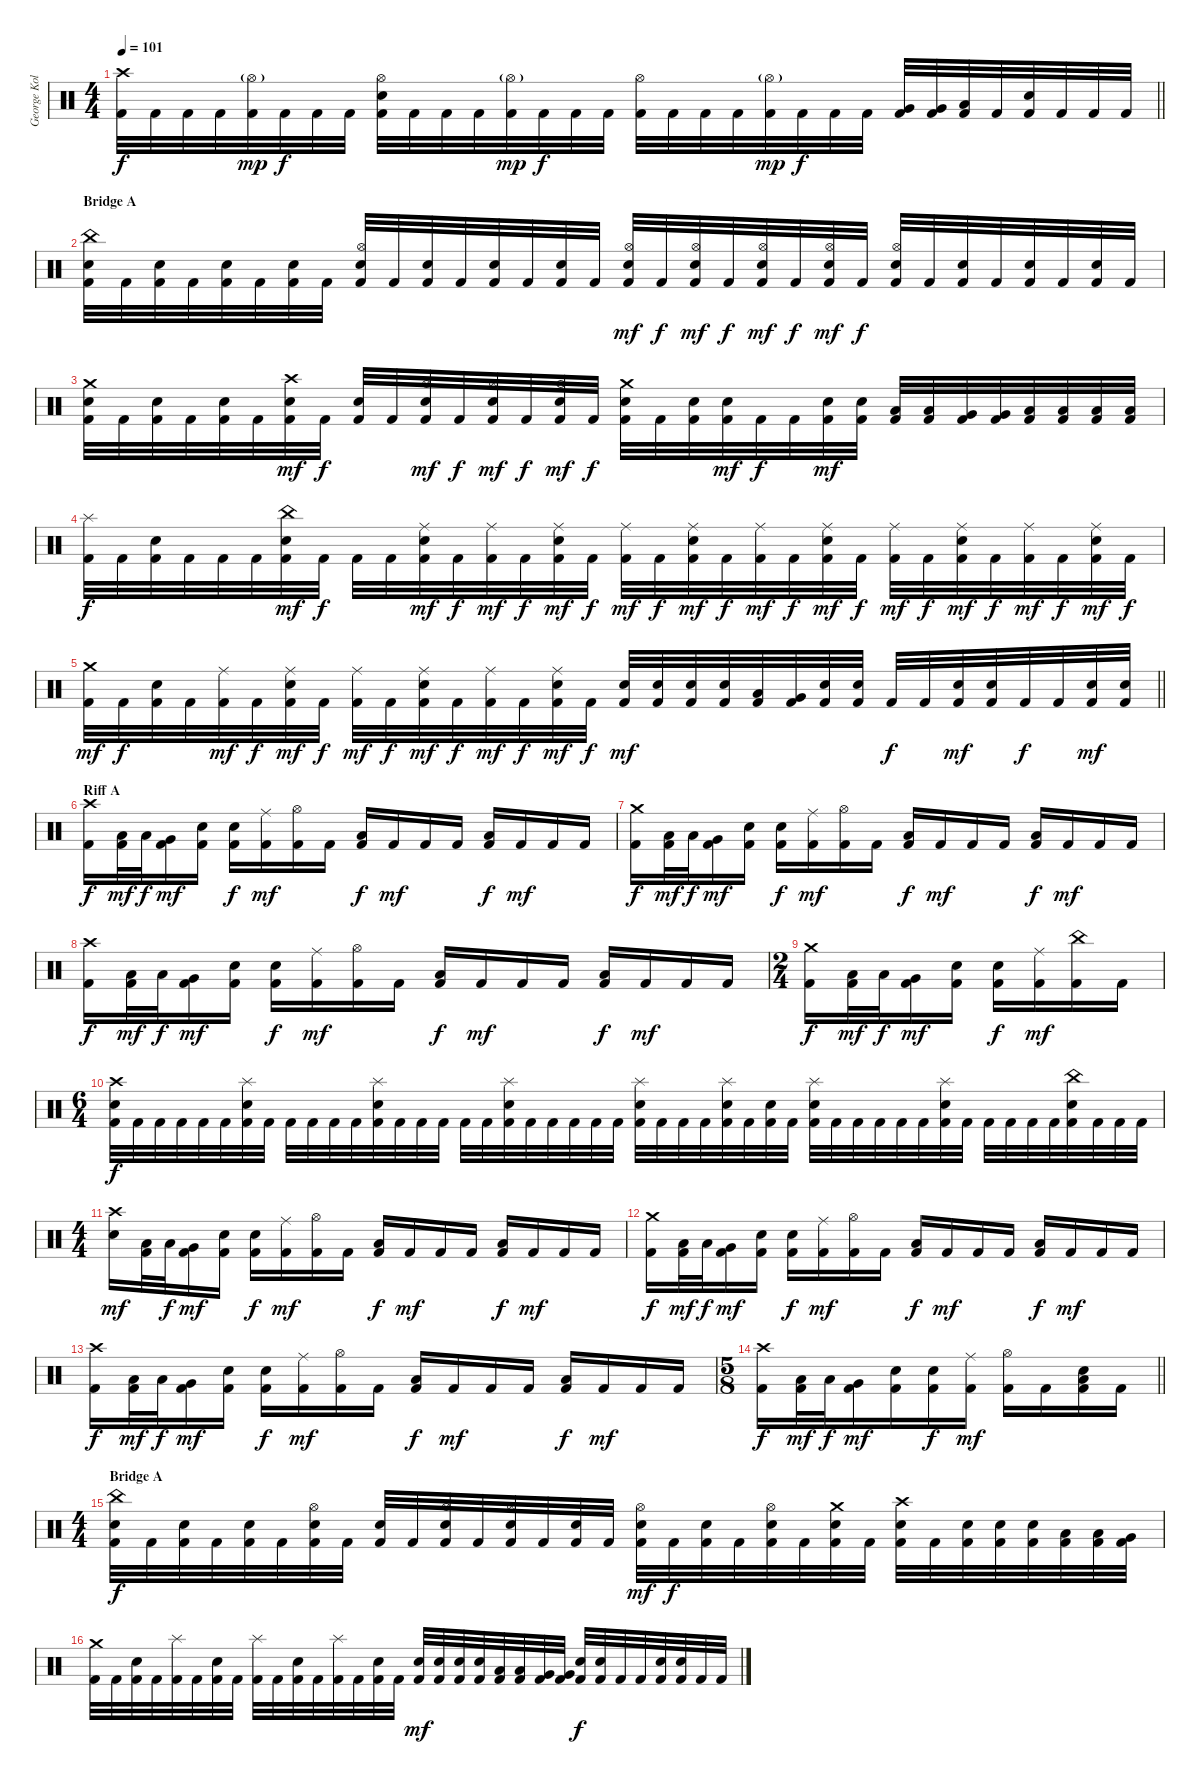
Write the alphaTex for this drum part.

\track ("George Kollias" "George Kol") {instrument percussion}
\staff {score}
\articulation defaults
\ts (4 4)
\tempo 101
\clef neutral
\barLineRight lightlight
\ks c
("Crash high (hit)" "Kick (hit) 2").32{dy f} "Kick (hit) 2".32 "Kick (hit) 2".32 "Kick (hit) 2".32 ("Hi-Hat (open)"{g} "Kick (hit) 2").32{dy mp} "Kick (hit) 2".32{dy f} "Kick (hit) 2".32 "Kick (hit) 2".32 ("Hi-Hat (open)" "Electric Snare (hit)" "Kick (hit) 2").32 "Kick (hit) 2".32 "Kick (hit) 2".32 "Kick (hit) 2".32 ("Hi-Hat (open)"{g} "Kick (hit) 2").32{dy mp} "Kick (hit) 2".32{dy f} "Kick (hit) 2".32 "Kick (hit) 2".32 ("Hi-Hat (open)" "Kick (hit) 2").32 "Kick (hit) 2".32 "Kick (hit) 2".32 "Kick (hit) 2".32 ("Hi-Hat (open)"{g} "Kick (hit) 2").32{dy mp} "Kick (hit) 2".32{dy f} "Kick (hit) 2".32 "Kick (hit) 2".32 ("Very Low Tom (hit)" "Kick (hit) 2").32 ("Very Low Tom (hit)" "Kick (hit) 2").32 ("Low Floor Tom (hit)" "Kick (hit) 2").32 "Kick (hit) 2".32 ("Electric Snare (hit)" "Kick (hit) 2").32 "Kick (hit) 2".32 "Kick (hit) 2".32 "Kick (hit) 2".32 |
\section ("" "Bridge A")
("China (hit)" "Electric Snare (hit)" "Kick (hit) 2").32 "Kick (hit) 2".32 ("Electric Snare (hit)" "Kick (hit) 2").32 "Kick (hit) 2".32 ("Electric Snare (hit)" "Kick (hit) 2").32 "Kick (hit) 2".32 ("Electric Snare (hit)" "Kick (hit) 2").32 "Kick (hit) 2".32 ("Hi-Hat (open)" "Electric Snare (hit)" "Kick (hit) 2").32 "Kick (hit) 2".32 ("Electric Snare (hit)" "Kick (hit) 2").32 "Kick (hit) 2".32 ("Electric Snare (hit)" "Kick (hit) 2").32 "Kick (hit) 2".32 ("Electric Snare (hit)" "Kick (hit) 2").32 "Kick (hit) 2".32 ("Hi-Hat (open)" "Electric Snare (hit)" "Kick (hit) 2").32{dy mf} "Kick (hit) 2".32{dy f} ("Hi-Hat (open)" "Electric Snare (hit)" "Kick (hit) 2").32{dy mf} "Kick (hit) 2".32{dy f} ("Hi-Hat (open)" "Electric Snare (hit)" "Kick (hit) 2").32{dy mf} "Kick (hit) 2".32{dy f} ("Hi-Hat (open)" "Electric Snare (hit)" "Kick (hit) 2").32{dy mf} "Kick (hit) 2".32{dy f} ("Hi-Hat (open)" "Electric Snare (hit)" "Kick (hit) 2").32 "Kick (hit) 2".32 ("Electric Snare (hit)" "Kick (hit) 2").32 "Kick (hit) 2".32 ("Electric Snare (hit)" "Kick (hit) 2").32 "Kick (hit) 2".32 ("Electric Snare (hit)" "Kick (hit) 2").32 "Kick (hit) 2".32 |
("Crash medium (hit)" "Electric Snare (hit)" "Kick (hit) 2").32 "Kick (hit) 2".32 ("Electric Snare (hit)" "Kick (hit) 2").32 "Kick (hit) 2".32 ("Electric Snare (hit)" "Kick (hit) 2").32 "Kick (hit) 2".32 ("Crash high (hit)" "Electric Snare (hit)" "Kick (hit) 2").32{dy mf} "Kick (hit) 2".32{dy f} ("Electric Snare (hit)" "Kick (hit) 2").32 "Kick (hit) 2".32 ("Hi-Hat (open)" "Electric Snare (hit)" "Kick (hit) 2").32{dy mf} "Kick (hit) 2".32{dy f} ("Hi-Hat (open)" "Electric Snare (hit)" "Kick (hit) 2").32{dy mf} "Kick (hit) 2".32{dy f} ("Hi-Hat (open)" "Electric Snare (hit)" "Kick (hit) 2").32{dy mf} "Kick (hit) 2".32{dy f} ("Crash medium (hit)" "Electric Snare (hit)" "Kick (hit) 2").32 "Kick (hit) 2".32 ("Electric Snare (hit)" "Kick (hit) 2").32 ("Electric Snare (hit)" "Kick (hit) 2").32{dy mf} "Kick (hit) 2".32{dy f} "Kick (hit) 2".32 ("Electric Snare (hit)" "Kick (hit) 2").32{dy mf} ("Electric Snare (hit)" "Kick (hit) 2").32 ("Low Tom (hit)" "Kick (hit) 2").32 ("Low Tom (hit)" "Kick (hit) 2").32 ("Very Low Tom (hit)" "Kick (hit) 2").32 ("Very Low Tom (hit)" "Kick (hit) 2").32 ("Low Floor Tom (hit)" "Kick (hit) 2").32 ("Low Floor Tom (hit)" "Kick (hit) 2").32 ("Low Floor Tom (hit)" "Kick (hit) 2").32 ("Low Floor Tom (hit)" "Kick (hit) 2").32 |
("Splash (hit)" "Kick (hit) 2").32{dy f} "Kick (hit) 2".32 ("Electric Snare (hit)" "Kick (hit) 2").32 "Kick (hit) 2".32 "Kick (hit) 2".32 "Kick (hit) 2".32 ("China (hit)" "Electric Snare (hit)" "Kick (hit) 2").32{dy mf} "Kick (hit) 2".32{dy f} "Kick (hit) 2".32 "Kick (hit) 2".32 ("Ride (middle)" "Electric Snare (hit)" "Kick (hit) 2").32{dy mf} "Kick (hit) 2".32{dy f} ("Ride (middle)" "Kick (hit) 2").32{dy mf} "Kick (hit) 2".32{dy f} ("Ride (middle)" "Electric Snare (hit)" "Kick (hit) 2").32{dy mf} "Kick (hit) 2".32{dy f} ("Ride (middle)" "Kick (hit) 2").32{dy mf} "Kick (hit) 2".32{dy f} ("Ride (middle)" "Electric Snare (hit)" "Kick (hit) 2").32{dy mf} "Kick (hit) 2".32{dy f} ("Ride (middle)" "Kick (hit) 2").32{dy mf} "Kick (hit) 2".32{dy f} ("Ride (middle)" "Electric Snare (hit)" "Kick (hit) 2").32{dy mf} "Kick (hit) 2".32{dy f} ("Ride (middle)" "Kick (hit) 2").32{dy mf} "Kick (hit) 2".32{dy f} ("Ride (middle)" "Electric Snare (hit)" "Kick (hit) 2").32{dy mf} "Kick (hit) 2".32{dy f} ("Ride (middle)" "Kick (hit) 2").32{dy mf} "Kick (hit) 2".32{dy f} ("Ride (middle)" "Electric Snare (hit)" "Kick (hit) 2").32{dy mf} "Kick (hit) 2".32{dy f} |
\barLineRight lightlight
("Crash medium (hit)" "Kick (hit) 2").32{dy mf} "Kick (hit) 2".32{dy f} ("Electric Snare (hit)" "Kick (hit) 2").32 "Kick (hit) 2".32 ("Ride (middle)" "Kick (hit) 2").32{dy mf} "Kick (hit) 2".32{dy f} ("Ride (middle)" "Electric Snare (hit)" "Kick (hit) 2").32{dy mf} "Kick (hit) 2".32{dy f} ("Ride (middle)" "Kick (hit) 2").32{dy mf} "Kick (hit) 2".32{dy f} ("Ride (middle)" "Electric Snare (hit)" "Kick (hit) 2").32{dy mf} "Kick (hit) 2".32{dy f} ("Ride (middle)" "Kick (hit) 2").32{dy mf} "Kick (hit) 2".32{dy f} ("Ride (middle)" "Electric Snare (hit)" "Kick (hit) 2").32{dy mf} "Kick (hit) 2".32{dy f} ("Electric Snare (hit)" "Kick (hit) 2").32{dy mf} ("Electric Snare (hit)" "Kick (hit) 2").32 ("Electric Snare (hit)" "Kick (hit) 2").32 ("Electric Snare (hit)" "Kick (hit) 2").32 ("Low Tom (hit)" "Kick (hit) 2").32 ("Very Low Tom (hit)" "Kick (hit) 2").32 ("Electric Snare (hit)" "Kick (hit) 2").32 ("Electric Snare (hit)" "Kick (hit) 2").32 "Kick (hit) 2".32{dy f} "Kick (hit) 2".32 ("Electric Snare (hit)" "Kick (hit) 2").32{dy mf} ("Electric Snare (hit)" "Kick (hit) 2").32 "Kick (hit) 2".32{dy f} "Kick (hit) 2".32 ("Electric Snare (hit)" "Kick (hit) 2").32{dy mf} ("Electric Snare (hit)" "Kick (hit) 2").32 |
\section ("" "Riff A")
("Crash high (hit)" "Kick (hit) 2").16{dy f} ("Low Tom (hit)" "Kick (hit) 2").32{dy mf} "Low Tom (hit)".32{dy f} ("Very Low Tom (hit)" "Kick (hit) 2").16{dy mf} ("Electric Snare (hit)" "Kick (hit) 2").16 ("Electric Snare (hit)" "Kick (hit) 2").16{dy f} ("Ride (middle)" "Kick (hit) 2").16{dy mf} ("Hi-Hat (open)" "Kick (hit) 2").16 "Kick (hit) 2".16 ("Low Floor Tom (hit)" "Kick (hit) 2").16{dy f} "Kick (hit) 2".16{dy mf} "Kick (hit) 2".16 "Kick (hit) 2".16 ("Low Floor Tom (hit)" "Kick (hit) 2").16{dy f} "Kick (hit) 2".16{dy mf} "Kick (hit) 2".16 "Kick (hit) 2".16 |
("Crash medium (hit)" "Kick (hit) 2").16{dy f} ("Low Tom (hit)" "Kick (hit) 2").32{dy mf} "Low Tom (hit)".32{dy f} ("Very Low Tom (hit)" "Kick (hit) 2").16{dy mf} ("Electric Snare (hit)" "Kick (hit) 2").16 ("Electric Snare (hit)" "Kick (hit) 2").16{dy f} ("Ride (middle)" "Kick (hit) 2").16{dy mf} ("Hi-Hat (open)" "Kick (hit) 2").16 "Kick (hit) 2".16 ("Low Floor Tom (hit)" "Kick (hit) 2").16{dy f} "Kick (hit) 2".16{dy mf} "Kick (hit) 2".16 "Kick (hit) 2".16 ("Low Floor Tom (hit)" "Kick (hit) 2").16{dy f} "Kick (hit) 2".16{dy mf} "Kick (hit) 2".16 "Kick (hit) 2".16 |
("Crash high (hit)" "Kick (hit) 2").16{dy f} ("Low Tom (hit)" "Kick (hit) 2").32{dy mf} "Low Tom (hit)".32{dy f} ("Very Low Tom (hit)" "Kick (hit) 2").16{dy mf} ("Electric Snare (hit)" "Kick (hit) 2").16 ("Electric Snare (hit)" "Kick (hit) 2").16{dy f} ("Ride (middle)" "Kick (hit) 2").16{dy mf} ("Hi-Hat (open)" "Kick (hit) 2").16 "Kick (hit) 2".16 ("Low Floor Tom (hit)" "Kick (hit) 2").16{dy f} "Kick (hit) 2".16{dy mf} "Kick (hit) 2".16 "Kick (hit) 2".16 ("Low Floor Tom (hit)" "Kick (hit) 2").16{dy f} "Kick (hit) 2".16{dy mf} "Kick (hit) 2".16 "Kick (hit) 2".16 |
\ts (2 4)
("Crash medium (hit)" "Kick (hit) 2").16{dy f} ("Low Tom (hit)" "Kick (hit) 2").32{dy mf} "Low Tom (hit)".32{dy f} ("Very Low Tom (hit)" "Kick (hit) 2").16{dy mf} ("Electric Snare (hit)" "Kick (hit) 2").16 ("Electric Snare (hit)" "Kick (hit) 2").16{dy f} ("Ride (middle)" "Kick (hit) 2").16{dy mf} ("China (hit)" "Kick (hit) 2").16 "Kick (hit) 2".16 |
\ts (6 4)
("Crash high (hit)" "Electric Snare (hit)" "Kick (hit) 2").32{dy f} "Kick (hit) 2".32 "Kick (hit) 2".32 "Kick (hit) 2".32 "Kick (hit) 2".32 "Kick (hit) 2".32 ("Splash (hit)" "Electric Snare (hit)" "Kick (hit) 2").32 "Kick (hit) 2".32 "Kick (hit) 2".32 "Kick (hit) 2".32 "Kick (hit) 2".32 "Kick (hit) 2".32 ("Splash (hit)" "Electric Snare (hit)" "Kick (hit) 2").32 "Kick (hit) 2".32 "Kick (hit) 2".32 "Kick (hit) 2".32 "Kick (hit) 2".32 "Kick (hit) 2".32 ("Splash (hit)" "Electric Snare (hit)" "Kick (hit) 2").32 "Kick (hit) 2".32 "Kick (hit) 2".32 "Kick (hit) 2".32 "Kick (hit) 2".32 "Kick (hit) 2".32 ("Splash (hit)" "Electric Snare (hit)" "Kick (hit) 2").32 "Kick (hit) 2".32 "Kick (hit) 2".32 "Kick (hit) 2".32 ("Splash (hit)" "Electric Snare (hit)" "Kick (hit) 2").32 "Kick (hit) 2".32 ("Electric Snare (hit)" "Kick (hit) 2").32 "Kick (hit) 2".32 ("Splash (hit)" "Electric Snare (hit)" "Kick (hit) 2").32 "Kick (hit) 2".32 "Kick (hit) 2".32 "Kick (hit) 2".32 "Kick (hit) 2".32 "Kick (hit) 2".32 ("Splash (hit)" "Electric Snare (hit)" "Kick (hit) 2").32 "Kick (hit) 2".32 "Kick (hit) 2".32 "Kick (hit) 2".32 "Kick (hit) 2".32 "Kick (hit) 2".32 ("China (hit)" "Electric Snare (hit)" "Kick (hit) 2").32 "Kick (hit) 2".32 "Kick (hit) 2".32 "Kick (hit) 2".32 |
\ts (4 4)
("Crash high (hit)" "Electric Snare (hit)").16{dy mf} ("Low Tom (hit)" "Kick (hit) 2").32 "Low Tom (hit)".32{dy f} ("Very Low Tom (hit)" "Kick (hit) 2").16{dy mf} ("Electric Snare (hit)" "Kick (hit) 2").16 ("Electric Snare (hit)" "Kick (hit) 2").16{dy f} ("Ride (middle)" "Kick (hit) 2").16{dy mf} ("Hi-Hat (open)" "Kick (hit) 2").16 "Kick (hit) 2".16 ("Low Floor Tom (hit)" "Kick (hit) 2").16{dy f} "Kick (hit) 2".16{dy mf} "Kick (hit) 2".16 "Kick (hit) 2".16 ("Low Floor Tom (hit)" "Kick (hit) 2").16{dy f} "Kick (hit) 2".16{dy mf} "Kick (hit) 2".16 "Kick (hit) 2".16 |
("Crash medium (hit)" "Kick (hit) 2").16{dy f} ("Low Tom (hit)" "Kick (hit) 2").32{dy mf} "Low Tom (hit)".32{dy f} ("Very Low Tom (hit)" "Kick (hit) 2").16{dy mf} ("Electric Snare (hit)" "Kick (hit) 2").16 ("Electric Snare (hit)" "Kick (hit) 2").16{dy f} ("Ride (middle)" "Kick (hit) 2").16{dy mf} ("Hi-Hat (open)" "Kick (hit) 2").16 "Kick (hit) 2".16 ("Low Floor Tom (hit)" "Kick (hit) 2").16{dy f} "Kick (hit) 2".16{dy mf} "Kick (hit) 2".16 "Kick (hit) 2".16 ("Low Floor Tom (hit)" "Kick (hit) 2").16{dy f} "Kick (hit) 2".16{dy mf} "Kick (hit) 2".16 "Kick (hit) 2".16 |
("Crash high (hit)" "Kick (hit) 2").16{dy f} ("Low Tom (hit)" "Kick (hit) 2").32{dy mf} "Low Tom (hit)".32{dy f} ("Very Low Tom (hit)" "Kick (hit) 2").16{dy mf} ("Electric Snare (hit)" "Kick (hit) 2").16 ("Electric Snare (hit)" "Kick (hit) 2").16{dy f} ("Ride (middle)" "Kick (hit) 2").16{dy mf} ("Hi-Hat (open)" "Kick (hit) 2").16 "Kick (hit) 2".16 ("Low Floor Tom (hit)" "Kick (hit) 2").16{dy f} "Kick (hit) 2".16{dy mf} "Kick (hit) 2".16 "Kick (hit) 2".16 ("Low Floor Tom (hit)" "Kick (hit) 2").16{dy f} "Kick (hit) 2".16{dy mf} "Kick (hit) 2".16 "Kick (hit) 2".16 |
\ts (5 8)
\barLineRight lightlight
("Crash high (hit)" "Kick (hit) 2").16{dy f} ("Low Tom (hit)" "Kick (hit) 2").32{dy mf} "Low Tom (hit)".32{dy f} ("Very Low Tom (hit)" "Kick (hit) 2").16{dy mf} ("Electric Snare (hit)" "Kick (hit) 2").16 ("Electric Snare (hit)" "Kick (hit) 2").16{dy f} ("Ride (middle)" "Kick (hit) 2").16{dy mf} ("Hi-Hat (open)" "Kick (hit) 2").16 "Kick (hit) 2".16 ("Low Floor Tom (hit)" "Electric Snare (hit)" "Kick (hit) 2").16 "Kick (hit) 2".16 |
\ts (4 4)
\section ("" "Bridge A")
("China (hit)" "Electric Snare (hit)" "Kick (hit) 2").32{dy f} "Kick (hit) 2".32 ("Electric Snare (hit)" "Kick (hit) 2").32 "Kick (hit) 2".32 ("Electric Snare (hit)" "Kick (hit) 2").32 "Kick (hit) 2".32 ("Hi-Hat (open)" "Electric Snare (hit)" "Kick (hit) 2").32 "Kick (hit) 2".32 ("Electric Snare (hit)" "Kick (hit) 2").32 "Kick (hit) 2".32 ("Hi-Hat (open)" "Electric Snare (hit)" "Kick (hit) 2").32 "Kick (hit) 2".32 ("Hi-Hat (open)" "Electric Snare (hit)" "Kick (hit) 2").32 "Kick (hit) 2".32 ("Electric Snare (hit)" "Kick (hit) 2").32 "Kick (hit) 2".32 ("Hi-Hat (open)" "Electric Snare (hit)" "Kick (hit) 2").32{dy mf} "Kick (hit) 2".32{dy f} ("Electric Snare (hit)" "Kick (hit) 2").32 "Kick (hit) 2".32 ("Hi-Hat (open)" "Electric Snare (hit)" "Kick (hit) 2").32 "Kick (hit) 2".32 ("Crash medium (hit)" "Electric Snare (hit)" "Kick (hit) 2").32 "Kick (hit) 2".32 ("Crash high (hit)" "Electric Snare (hit)" "Kick (hit) 2").32 "Kick (hit) 2".32 ("Electric Snare (hit)" "Kick (hit) 2").32 ("Electric Snare (hit)" "Kick (hit) 2").32 ("Electric Snare (hit)" "Kick (hit) 2").32 ("Low Tom (hit)" "Kick (hit) 2").32 ("Low Tom (hit)" "Kick (hit) 2").32 ("Very Low Tom (hit)" "Kick (hit) 2").32 |
("Crash medium (hit)" "Kick (hit) 2").32 "Kick (hit) 2".32 ("Electric Snare (hit)" "Kick (hit) 2").32 "Kick (hit) 2".32 ("Splash (hit)" "Kick (hit) 2").32 "Kick (hit) 2".32 ("Electric Snare (hit)" "Kick (hit) 2").32 "Kick (hit) 2".32 ("Splash (hit)" "Kick (hit) 2").32 "Kick (hit) 2".32 ("Electric Snare (hit)" "Kick (hit) 2").32 "Kick (hit) 2".32 ("Splash (hit)" "Kick (hit) 2").32 "Kick (hit) 2".32 ("Electric Snare (hit)" "Kick (hit) 2").32 "Kick (hit) 2".32 ("Electric Snare (hit)" "Kick (hit) 2").32{dy mf} ("Electric Snare (hit)" "Kick (hit) 2").32 ("Electric Snare (hit)" "Kick (hit) 2").32 ("Electric Snare (hit)" "Kick (hit) 2").32 ("Low Tom (hit)" "Kick (hit) 2").32 ("Low Tom (hit)" "Kick (hit) 2").32 ("Very Low Tom (hit)" "Kick (hit) 2").32 ("Very Low Tom (hit)" "Kick (hit) 2").32 ("Electric Snare (hit)" "Kick (hit) 2").32{dy f} ("Electric Snare (hit)" "Kick (hit) 2").32 "Kick (hit) 2".32 "Kick (hit) 2".32 ("Electric Snare (hit)" "Kick (hit) 2").32 ("Electric Snare (hit)" "Kick (hit) 2").32 "Kick (hit) 2".32 "Kick (hit) 2".32
